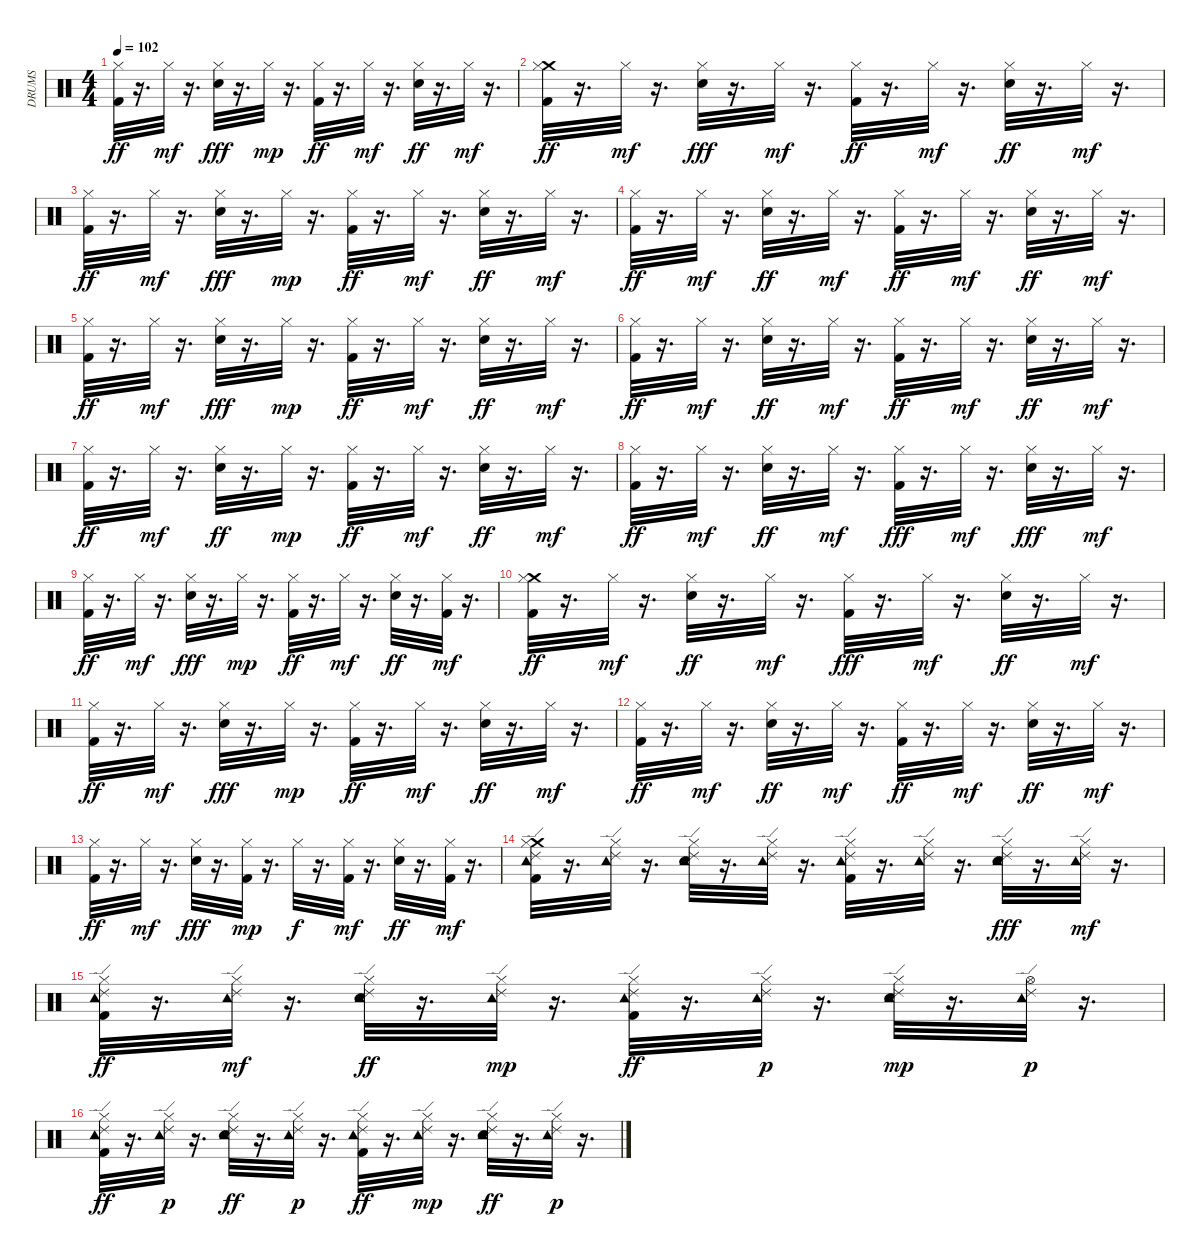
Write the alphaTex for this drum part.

\track ("DRUMS" "DRUMS") {instrument percussion}
\staff {score}
\articulation defaults
\ts (4 4)
\tempo 102
\clef neutral
\ks c
("Kick (hit) 2" "Hi-Hat (closed)").32{dy ff} r.16{d} "Hi-Hat (closed)".32{dy mf} r.16{d} ("Electric Snare (hit)" "Hi-Hat (closed)").32{dy fff} r.16{d} "Hi-Hat (closed)".32{dy mp} r.16{d} ("Kick (hit) 2" "Hi-Hat (closed)").32{dy ff} r.16{d} "Hi-Hat (closed)".32{dy mf} r.16{d} ("Hi-Hat (closed)" "Electric Snare (hit)").32{dy ff} r.16{d} "Hi-Hat (closed)".32{dy mf} r.16{d} |
("Kick (hit) 2" "Crash medium (hit)" "Hi-Hat (closed)").32{dy ff} r.16{d} "Hi-Hat (closed)".32{dy mf} r.16{d} ("Hi-Hat (closed)" "Electric Snare (hit)").32{dy fff} r.16{d} "Hi-Hat (closed)".32{dy mf} r.16{d} ("Kick (hit) 2" "Hi-Hat (closed)").32{dy ff} r.16{d} "Hi-Hat (closed)".32{dy mf} r.16{d} ("Electric Snare (hit)" "Hi-Hat (closed)").32{dy ff} r.16{d} "Hi-Hat (closed)".32{dy mf} r.16{d} |
("Hi-Hat (closed)" "Kick (hit) 2").32{dy ff} r.16{d} "Hi-Hat (closed)".32{dy mf} r.16{d} ("Hi-Hat (closed)" "Electric Snare (hit)").32{dy fff} r.16{d} "Hi-Hat (closed)".32{dy mp} r.16{d} ("Hi-Hat (closed)" "Kick (hit) 2").32{dy ff} r.16{d} "Hi-Hat (closed)".32{dy mf} r.16{d} ("Hi-Hat (closed)" "Electric Snare (hit)").32{dy ff} r.16{d} "Hi-Hat (closed)".32{dy mf} r.16{d} |
("Hi-Hat (closed)" "Kick (hit) 2").32{dy ff} r.16{d} "Hi-Hat (closed)".32{dy mf} r.16{d} ("Electric Snare (hit)" "Hi-Hat (closed)").32{dy ff} r.16{d} "Hi-Hat (closed)".32{dy mf} r.16{d} ("Kick (hit) 2" "Hi-Hat (closed)").32{dy ff} r.16{d} "Hi-Hat (closed)".32{dy mf} r.16{d} ("Electric Snare (hit)" "Hi-Hat (closed)").32{dy ff} r.16{d} "Hi-Hat (closed)".32{dy mf} r.16{d} |
("Kick (hit) 2" "Hi-Hat (closed)").32{dy ff} r.16{d} "Hi-Hat (closed)".32{dy mf} r.16{d} ("Hi-Hat (closed)" "Electric Snare (hit)").32{dy fff} r.16{d} "Hi-Hat (closed)".32{dy mp} r.16{d} ("Kick (hit) 2" "Hi-Hat (closed)").32{dy ff} r.16{d} "Hi-Hat (closed)".32{dy mf} r.16{d} ("Electric Snare (hit)" "Hi-Hat (closed)").32{dy ff} r.16{d} "Hi-Hat (closed)".32{dy mf} r.16{d} |
("Kick (hit) 2" "Hi-Hat (closed)").32{dy ff} r.16{d} "Hi-Hat (closed)".32{dy mf} r.16{d} ("Electric Snare (hit)" "Hi-Hat (closed)").32{dy ff} r.16{d} "Hi-Hat (closed)".32{dy mf} r.16{d} ("Kick (hit) 2" "Hi-Hat (closed)").32{dy ff} r.16{d} "Hi-Hat (closed)".32{dy mf} r.16{d} ("Electric Snare (hit)" "Hi-Hat (closed)").32{dy ff} r.16{d} "Hi-Hat (closed)".32{dy mf} r.16{d} |
("Hi-Hat (closed)" "Kick (hit) 2").32{dy ff} r.16{d} "Hi-Hat (closed)".32{dy mf} r.16{d} ("Electric Snare (hit)" "Hi-Hat (closed)").32{dy ff} r.16{d} "Hi-Hat (closed)".32{dy mp} r.16{d} ("Kick (hit) 2" "Hi-Hat (closed)").32{dy ff} r.16{d} "Hi-Hat (closed)".32{dy mf} r.16{d} ("Hi-Hat (closed)" "Electric Snare (hit)").32{dy ff} r.16{d} "Hi-Hat (closed)".32{dy mf} r.16{d} |
("Hi-Hat (closed)" "Kick (hit) 2").32{dy ff} r.16{d} "Hi-Hat (closed)".32{dy mf} r.16{d} ("Hi-Hat (closed)" "Electric Snare (hit)").32{dy ff} r.16{d} "Hi-Hat (closed)".32{dy mf} r.16{d} ("Hi-Hat (closed)" "Kick (hit) 2").32{dy fff} r.16{d} "Hi-Hat (closed)".32{dy mf} r.16{d} ("Hi-Hat (closed)" "Electric Snare (hit)").32{dy fff} r.16{d} "Hi-Hat (closed)".32{dy mf} r.16{d} |
("Hi-Hat (closed)" "Kick (hit) 2").32{dy ff} r.16{d} "Hi-Hat (closed)".32{dy mf} r.16{d} ("Hi-Hat (closed)" "Electric Snare (hit)").32{dy fff} r.16{d} "Hi-Hat (closed)".32{dy mp} r.16{d} ("Hi-Hat (closed)" "Kick (hit) 2").32{dy ff} r.16{d} "Hi-Hat (closed)".32{dy mf} r.16{d} ("Hi-Hat (closed)" "Electric Snare (hit)").32{dy ff} r.16{d} ("Hi-Hat (closed)" "Kick (hit) 2").32{dy mf} r.16{d} |
("Kick (hit) 2" "Crash medium (hit)" "Hi-Hat (closed)").32{dy ff} r.16{d} "Hi-Hat (closed)".32{dy mf} r.16{d} ("Hi-Hat (closed)" "Electric Snare (hit)").32{dy ff} r.16{d} "Hi-Hat (closed)".32{dy mf} r.16{d} ("Hi-Hat (closed)" "Kick (hit) 2").32{dy fff} r.16{d} "Hi-Hat (closed)".32{dy mf} r.16{d} ("Hi-Hat (closed)" "Electric Snare (hit)").32{dy ff} r.16{d} "Hi-Hat (closed)".32{dy mf} r.16{d} |
("Hi-Hat (closed)" "Kick (hit) 2").32{dy ff} r.16{d} "Hi-Hat (closed)".32{dy mf} r.16{d} ("Hi-Hat (closed)" "Electric Snare (hit)").32{dy fff} r.16{d} "Hi-Hat (closed)".32{dy mp} r.16{d} ("Hi-Hat (closed)" "Kick (hit) 2").32{dy ff} r.16{d} "Hi-Hat (closed)".32{dy mf} r.16{d} ("Hi-Hat (closed)" "Electric Snare (hit)").32{dy ff} r.16{d} "Hi-Hat (closed)".32{dy mf} r.16{d} |
("Hi-Hat (closed)" "Kick (hit) 2").32{dy ff} r.16{d} "Hi-Hat (closed)".32{dy mf} r.16{d} ("Electric Snare (hit)" "Hi-Hat (closed)").32{dy ff} r.16{d} "Hi-Hat (closed)".32{dy mf} r.16{d} ("Kick (hit) 2" "Hi-Hat (closed)").32{dy ff} r.16{d} "Hi-Hat (closed)".32{dy mf} r.16{d} ("Hi-Hat (closed)" "Electric Snare (hit)").32{dy ff} r.16{d} "Hi-Hat (closed)".32{dy mf} r.16{d} |
("Kick (hit) 2" "Hi-Hat (closed)").32{dy ff} r.16{d} "Hi-Hat (closed)".32{dy mf} r.16{d} ("Electric Snare (hit)" "Hi-Hat (closed)").32{dy fff} r.16{d} ("Hi-Hat (closed)" "Kick (hit) 2").32{dy mp} r.16{d} "Hi-Hat (closed)".32{dy f} r.16{d} ("Hi-Hat (closed)" "Kick (hit) 2").32{dy mf} r.16{d} ("Hi-Hat (closed)" "Electric Snare (hit)").32{dy ff} r.16{d} ("Hi-Hat (closed)" "Kick (hit) 2").32{dy mf} r.16{d} |
("Ride (edge) 2" "Crash medium (hit)" "Hi-Hat (closed)" "Kick (hit) 2" "Tambourine (hit)").32 r.16{d} ("Tambourine (hit)" "Hi-Hat (closed)" "Ride (edge) 2").32 r.16{d} ("Electric Snare (hit)" "Hi-Hat (closed)" "Tambourine (hit)" "Ride (edge) 2").32 r.16{d} ("Tambourine (hit)" "Hi-Hat (closed)" "Ride (edge) 2").32 r.16{d} ("Kick (hit) 2" "Hi-Hat (closed)" "Tambourine (hit)" "Ride (edge) 2").32 r.16{d} ("Ride (edge) 2" "Tambourine (hit)" "Hi-Hat (closed)").32 r.16{d} ("Ride (edge) 2" "Tambourine (hit)" "Hi-Hat (closed)" "Electric Snare (hit)").32{dy fff} r.16{d} ("Ride (edge) 2" "Tambourine (hit)" "Hi-Hat (closed)").32{dy mf} r.16{d} |
("Ride (edge) 2" "Tambourine (hit)" "Hi-Hat (closed)" "Kick (hit) 2").32{dy ff} r.16{d} ("Ride (edge) 2" "Tambourine (hit)" "Hi-Hat (closed)").32{dy mf} r.16{d} ("Ride (edge) 2" "Tambourine (hit)" "Hi-Hat (closed)" "Electric Snare (hit)").32{dy ff} r.16{d} ("Ride (edge) 2" "Tambourine (hit)" "Hi-Hat (closed)").32{dy mp} r.16{d} ("Ride (edge) 2" "Tambourine (hit)" "Hi-Hat (closed)" "Kick (hit) 2").32{dy ff} r.16{d} ("Hi-Hat (closed)" "Ride (edge) 2" "Tambourine (hit)").32{dy p} r.16{d} ("Electric Snare (hit)" "Ride (edge) 2" "Tambourine (hit)" "Hi-Hat (closed)").32{dy mp} r.16{d} ("Ride (edge) 2" "Hi-Hat (open)" "Tambourine (hit)").32{dy p} r.16{d} |
("Kick (hit) 2" "Ride (edge) 2" "Tambourine (hit)" "Hi-Hat (closed)").32{dy ff} r.16{d} ("Ride (edge) 2" "Hi-Hat (closed)" "Tambourine (hit)").32{dy p} r.16{d} ("Electric Snare (hit)" "Ride (edge) 2" "Tambourine (hit)" "Hi-Hat (closed)").32{dy ff} r.16{d} ("Ride (edge) 2" "Hi-Hat (closed)" "Tambourine (hit)").32{dy p} r.16{d} ("Kick (hit) 2" "Ride (edge) 2" "Tambourine (hit)" "Hi-Hat (closed)").32{dy ff} r.16{d} ("Ride (edge) 2" "Hi-Hat (closed)" "Tambourine (hit)").32{dy mp} r.16{d} ("Electric Snare (hit)" "Ride (edge) 2" "Tambourine (hit)" "Hi-Hat (closed)").32{dy ff} r.16{d} ("Ride (edge) 2" "Hi-Hat (closed)" "Tambourine (hit)").32{dy p} r.16{d}
